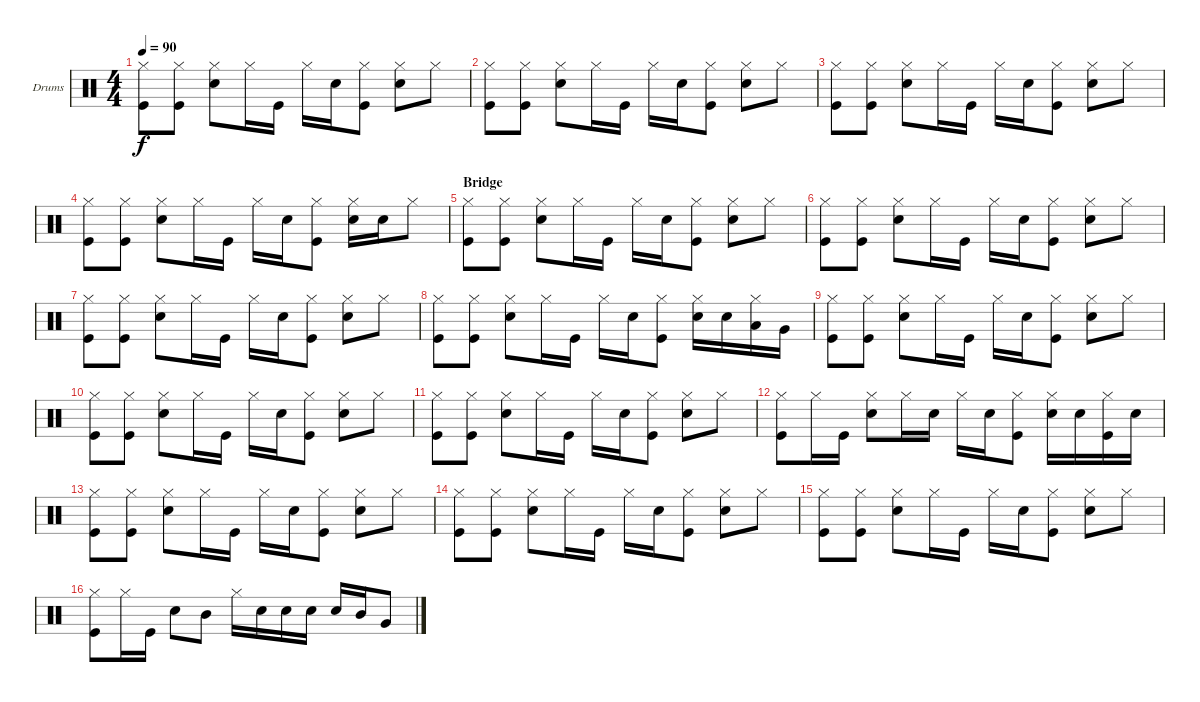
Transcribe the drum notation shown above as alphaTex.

\defaultSystemsLayout 4
\bracketExtendMode groupsimilarinstruments
\firstSystemTrackNameOrientation horizontal
\otherSystemsTrackNameOrientation horizontal
\track ("Drums" "Drums") {instrument percussion}
\staff {score}
\articulation defaults
\ts (4 4)
\tempo 90
\clef neutral
\scale
0.333333
\ks c
("Hi-Hat (closed)" "Kick (hit)").8{dy f} ("Hi-Hat (closed)" "Kick (hit)").8 ("Hi-Hat (closed)" "Snare (hit) 2").8 "Hi-Hat (closed)".16 "Kick (hit)".16 "Hi-Hat (closed)".16 "Snare (hit) 2".16 ("Hi-Hat (closed)" "Kick (hit)").8 ("Hi-Hat (closed)" "Snare (hit) 2").8 "Hi-Hat (closed)".8 |
\scale
0.333333 ("Hi-Hat (closed)" "Kick (hit)").8 ("Hi-Hat (closed)" "Kick (hit)").8 ("Hi-Hat (closed)" "Snare (hit) 2").8 "Hi-Hat (closed)".16 "Kick (hit)".16 "Hi-Hat (closed)".16 "Snare (hit) 2".16 ("Hi-Hat (closed)" "Kick (hit)").8 ("Hi-Hat (closed)" "Snare (hit) 2").8 "Hi-Hat (closed)".8 |
\scale
0.333333 ("Hi-Hat (closed)" "Kick (hit)").8 ("Hi-Hat (closed)" "Kick (hit)").8 ("Hi-Hat (closed)" "Snare (hit) 2").8 "Hi-Hat (closed)".16 "Kick (hit)".16 "Hi-Hat (closed)".16 "Snare (hit) 2".16 ("Hi-Hat (closed)" "Kick (hit)").8 ("Hi-Hat (closed)" "Snare (hit) 2").8 "Hi-Hat (closed)".8 |
\scale
0.333333 ("Hi-Hat (closed)" "Kick (hit)").8 ("Hi-Hat (closed)" "Kick (hit)").8 ("Hi-Hat (closed)" "Snare (hit) 2").8 "Hi-Hat (closed)".16 "Kick (hit)".16 "Hi-Hat (closed)".16 "Snare (hit) 2".16 ("Hi-Hat (closed)" "Kick (hit)").8 ("Hi-Hat (closed)" "Snare (hit) 2").16 "Snare (hit) 2".16 "Hi-Hat (closed)".8 |
\section ("" "Bridge")
\scale
0.333333 ("Hi-Hat (closed)" "Kick (hit)").8 ("Hi-Hat (closed)" "Kick (hit)").8 ("Hi-Hat (closed)" "Snare (hit) 2").8 "Hi-Hat (closed)".16 "Kick (hit)".16 "Hi-Hat (closed)".16 "Snare (hit) 2".16 ("Hi-Hat (closed)" "Kick (hit)").8 ("Hi-Hat (closed)" "Snare (hit) 2").8 "Hi-Hat (closed)".8 |
\scale
0.333333 ("Hi-Hat (closed)" "Kick (hit)").8 ("Hi-Hat (closed)" "Kick (hit)").8 ("Hi-Hat (closed)" "Snare (hit) 2").8 "Hi-Hat (closed)".16 "Kick (hit)".16 "Hi-Hat (closed)".16 "Snare (hit) 2".16 ("Hi-Hat (closed)" "Kick (hit)").8 ("Hi-Hat (closed)" "Snare (hit) 2").8 "Hi-Hat (closed)".8 |
\scale
0.333333 ("Hi-Hat (closed)" "Kick (hit)").8 ("Hi-Hat (closed)" "Kick (hit)").8 ("Hi-Hat (closed)" "Snare (hit) 2").8 "Hi-Hat (closed)".16 "Kick (hit)".16 "Hi-Hat (closed)".16 "Snare (hit) 2".16 ("Hi-Hat (closed)" "Kick (hit)").8 ("Hi-Hat (closed)" "Snare (hit) 2").8 "Hi-Hat (closed)".8 |
\scale
0.333333 ("Hi-Hat (closed)" "Kick (hit)").8 ("Hi-Hat (closed)" "Kick (hit)").8 ("Hi-Hat (closed)" "Snare (hit) 2").8 "Hi-Hat (closed)".16 "Kick (hit)".16 "Hi-Hat (closed)".16 "Snare (hit) 2".16 ("Hi-Hat (closed)" "Kick (hit)").8 ("Hi-Hat (closed)" "Snare (hit) 2").16 "Snare (hit) 2".16 ("Hi-Hat (closed)" "Low Tom (hit)").16 "Very Low Tom (hit)".16 |
\scale
0.333333 ("Hi-Hat (closed)" "Kick (hit)").8 ("Hi-Hat (closed)" "Kick (hit)").8 ("Hi-Hat (closed)" "Snare (hit) 2").8 "Hi-Hat (closed)".16 "Kick (hit)".16 "Hi-Hat (closed)".16 "Snare (hit) 2".16 ("Hi-Hat (closed)" "Kick (hit)").8 ("Hi-Hat (closed)" "Snare (hit) 2").8 "Hi-Hat (closed)".8 |
\scale
0.333333 ("Hi-Hat (closed)" "Kick (hit)").8 ("Hi-Hat (closed)" "Kick (hit)").8 ("Hi-Hat (closed)" "Snare (hit) 2").8 "Hi-Hat (closed)".16 "Kick (hit)".16 "Hi-Hat (closed)".16 "Snare (hit) 2".16 ("Hi-Hat (closed)" "Kick (hit)").8 ("Hi-Hat (closed)" "Snare (hit) 2").8 "Hi-Hat (closed)".8 |
\scale
0.333333 ("Hi-Hat (closed)" "Kick (hit)").8 ("Hi-Hat (closed)" "Kick (hit)").8 ("Hi-Hat (closed)" "Snare (hit) 2").8 "Hi-Hat (closed)".16 "Kick (hit)".16 "Hi-Hat (closed)".16 "Snare (hit) 2".16 ("Hi-Hat (closed)" "Kick (hit)").8 ("Hi-Hat (closed)" "Snare (hit) 2").8 "Hi-Hat (closed)".8 |
\scale
0.333333 ("Hi-Hat (closed)" "Kick (hit)").8 "Hi-Hat (closed)".16 "Kick (hit)".16 ("Hi-Hat (closed)" "Snare (hit) 2").8 "Hi-Hat (closed)".16 "Snare (hit) 2".16 "Hi-Hat (closed)".16 "Snare (hit) 2".16 ("Hi-Hat (closed)" "Kick (hit)").8 ("Hi-Hat (closed)" "Snare (hit) 2").16 "Snare (hit) 2".16 ("Hi-Hat (closed)" "Kick (hit)").16 "Snare (hit) 2".16 |
\scale
0.333333 ("Hi-Hat (closed)" "Kick (hit)").8 ("Hi-Hat (closed)" "Kick (hit)").8 ("Hi-Hat (closed)" "Snare (hit) 2").8 "Hi-Hat (closed)".16 "Kick (hit)".16 "Hi-Hat (closed)".16 "Snare (hit) 2".16 ("Hi-Hat (closed)" "Kick (hit)").8 ("Hi-Hat (closed)" "Snare (hit) 2").8 "Hi-Hat (closed)".8 |
\scale
0.333333 ("Hi-Hat (closed)" "Kick (hit)").8 ("Hi-Hat (closed)" "Kick (hit)").8 ("Hi-Hat (closed)" "Snare (hit) 2").8 "Hi-Hat (closed)".16 "Kick (hit)".16 "Hi-Hat (closed)".16 "Snare (hit) 2".16 ("Hi-Hat (closed)" "Kick (hit)").8 ("Hi-Hat (closed)" "Snare (hit) 2").8 "Hi-Hat (closed)".8 |
\scale
0.333333 ("Hi-Hat (closed)" "Kick (hit)").8 ("Hi-Hat (closed)" "Kick (hit)").8 ("Hi-Hat (closed)" "Snare (hit) 2").8 "Hi-Hat (closed)".16 "Kick (hit)".16 "Hi-Hat (closed)".16 "Snare (hit) 2".16 ("Hi-Hat (closed)" "Kick (hit)").8 ("Hi-Hat (closed)" "Snare (hit) 2").8 "Hi-Hat (closed)".8 |
\scale
0.333333 ("Hi-Hat (closed)" "Kick (hit)").8 "Hi-Hat (closed)".16 "Kick (hit)".16 "Snare (hit) 2".8 "Mid Tom (hit)".8 "Hi-Hat (closed)".16 "Snare (hit) 2".16 "Snare (hit) 2".16 "Snare (hit) 2".16 "Snare (hit) 2".16 "Mid Tom (hit)".16 "Very Low Tom (hit)".8
